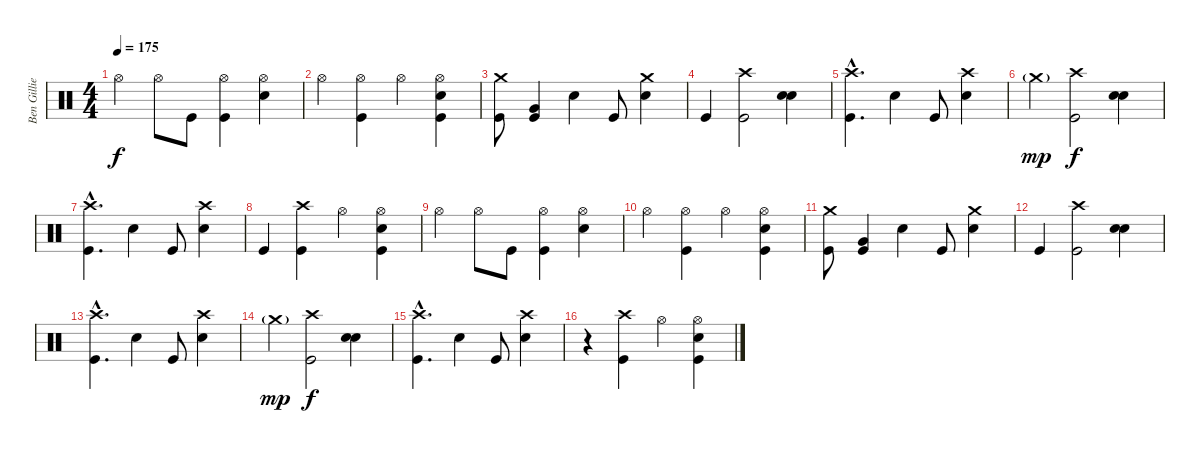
\track ("Ben Gillies" "Ben Gillie") {instrument percussion}
\staff {score}
\articulation defaults
\ts (4 4)
\tempo 175
\clef neutral
\ks c "Hi-Hat (open)".4{dy f} "Hi-Hat (open)".8 "Kick (hit)".8
("Kick (hit)" "Hi-Hat (open)").4 ("Snare (hit) 2" "Hi-Hat (open)").4 |
"Hi-Hat (open)".4 ("Kick (hit)" "Hi-Hat (open)").4 "Hi-Hat (open)".4 ("Kick (hit)" "Snare (hit) 2" "Hi-Hat (open)").4 |
("Kick (hit)" "Crash medium (hit)").8 ("Kick (hit)" "Very Low Tom (hit)").4 "Snare (hit) 2".4 "Kick (hit)".8 ("Snare (hit) 2" "Crash medium (hit)").4 |
"Kick (hit)".4 ("Kick (hit)" "Crash high (hit)").2 ("Snare (hit) 2" "Snare (hit) 2").4{bu 60} |
("Kick (hit)"{hac} "Crash high (hit)"{hac}).4{d} "Snare (hit) 2".4 "Kick (hit)".8 ("Snare (hit) 2" "Crash high (hit)").4 |
"Crash medium (hit)"{g}.4{dy mp} ("Kick (hit)" "Crash high (hit)").2{dy f} ("Snare (hit) 2" "Snare (hit) 2").4{bu 60} |
("Kick (hit)"{hac} "Crash high (hit)"{hac}).4{d} "Snare (hit) 2".4 "Kick (hit)".8 ("Snare (hit) 2" "Crash high (hit)").4 |
"Kick (hit)".4 ("Kick (hit)" "Crash high (hit)").4 "Hi-Hat (open)".4 ("Kick (hit)" "Snare (hit) 2" "Hi-Hat (open)").4 |
"Hi-Hat (open)".4 "Hi-Hat (open)".8 "Kick (hit)".8 ("Kick (hit)" "Hi-Hat (open)").4 ("Snare (hit) 2" "Hi-Hat (open)").4 |
"Hi-Hat (open)".4 ("Kick (hit)" "Hi-Hat (open)").4 "Hi-Hat (open)".4 ("Kick (hit)" "Snare (hit) 2" "Hi-Hat (open)").4 |
("Kick (hit)" "Crash medium (hit)").8 ("Kick (hit)" "Very Low Tom (hit)").4 "Snare (hit) 2".4 "Kick (hit)".8 ("Snare (hit) 2" "Crash medium (hit)").4 |
"Kick (hit)".4 ("Kick (hit)" "Crash high (hit)").2 ("Snare (hit) 2" "Snare (hit) 2").4{bu 60} |
("Kick (hit)"{hac} "Crash high (hit)"{hac}).4{d} "Snare (hit) 2".4 "Kick (hit)".8 ("Snare (hit) 2" "Crash high (hit)").4 |
"Crash medium (hit)"{g}.4{dy mp} ("Kick (hit)" "Crash high (hit)").2{dy f} ("Snare (hit) 2" "Snare (hit) 2").4{bu 60} |
("Kick (hit)"{hac} "Crash high (hit)"{hac}).4{d} "Snare (hit) 2".4 "Kick (hit)".8 ("Snare (hit) 2" "Crash high (hit)").4 |
r.4 ("Kick (hit)" "Crash high (hit)").4 "Hi-Hat (open)".4 ("Kick (hit)" "Snare (hit) 2" "Hi-Hat (open)").4
